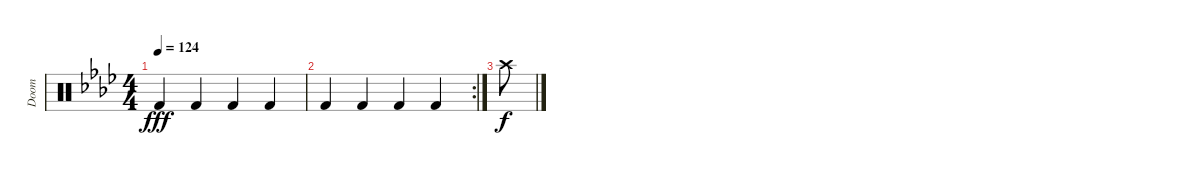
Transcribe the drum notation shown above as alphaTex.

\track ("Doom" "Doom") {instrument percussion}
\staff {score}
\articulation defaults
\ts (4 4)
\tempo 124
\clef neutral
\ks ab "Kick (hit) 2".4{dy fff} "Kick (hit) 2".4 "Kick (hit) 2".4 "Kick (hit) 2".4
|
\rc 2 "Kick (hit) 2".4 "Kick (hit) 2".4 "Kick (hit) 2".4 "Kick (hit) 2".4
|
"Crash high (hit)".8{dy f}
